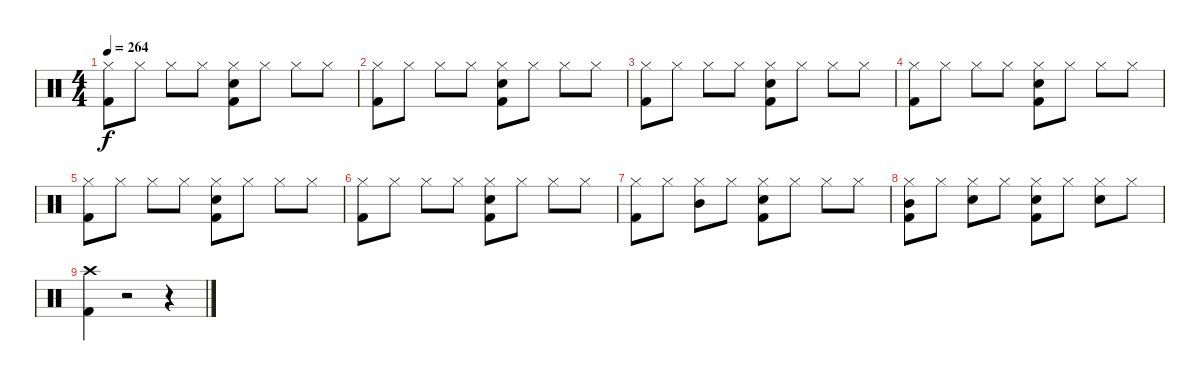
\track "" {instrument percussion}
\staff {score}
\articulation defaults
\ts (4 4)
\tempo 264
\clef neutral
\ks c
("Kick (hit) 2" "Hi-Hat (closed)").8{dy f} "Hi-Hat (closed)".8 "Hi-Hat (closed)".8 "Hi-Hat (closed)".8 ("Snare (hit) 2" "Kick (hit) 2" "Hi-Hat (closed)").8 "Hi-Hat (closed)".8 "Hi-Hat (closed)".8 "Hi-Hat (closed)".8 |
("Kick (hit) 2" "Hi-Hat (closed)").8 "Hi-Hat (closed)".8 "Hi-Hat (closed)".8 "Hi-Hat (closed)".8 ("Snare (hit) 2" "Kick (hit) 2" "Hi-Hat (closed)").8 "Hi-Hat (closed)".8 "Hi-Hat (closed)".8 "Hi-Hat (closed)".8 |
("Kick (hit) 2" "Hi-Hat (closed)").8 "Hi-Hat (closed)".8 "Hi-Hat (closed)".8 "Hi-Hat (closed)".8 ("Snare (hit) 2" "Kick (hit) 2" "Hi-Hat (closed)").8 "Hi-Hat (closed)".8 "Hi-Hat (closed)".8 "Hi-Hat (closed)".8 |
("Kick (hit) 2" "Hi-Hat (closed)").8 "Hi-Hat (closed)".8 "Hi-Hat (closed)".8 "Hi-Hat (closed)".8 ("Snare (hit) 2" "Kick (hit) 2" "Hi-Hat (closed)").8 "Hi-Hat (closed)".8 "Hi-Hat (closed)".8 "Hi-Hat (closed)".8 |
("Kick (hit) 2" "Hi-Hat (closed)").8 "Hi-Hat (closed)".8 "Hi-Hat (closed)".8 "Hi-Hat (closed)".8 ("Snare (hit) 2" "Kick (hit) 2" "Hi-Hat (closed)").8 "Hi-Hat (closed)".8 "Hi-Hat (closed)".8 "Hi-Hat (closed)".8 |
("Kick (hit) 2" "Hi-Hat (closed)").8 "Hi-Hat (closed)".8 "Hi-Hat (closed)".8 "Hi-Hat (closed)".8 ("Snare (hit) 2" "Kick (hit) 2" "Hi-Hat (closed)").8 "Hi-Hat (closed)".8 "Hi-Hat (closed)".8 "Hi-Hat (closed)".8 |
("Kick (hit) 2" "Hi-Hat (closed)").8 "Hi-Hat (closed)".8 ("Mid Tom (hit)" "Hi-Hat (closed)").8 "Hi-Hat (closed)".8 ("Snare (hit) 2" "Kick (hit) 2" "Hi-Hat (closed)").8 "Hi-Hat (closed)".8 "Hi-Hat (closed)".8 "Hi-Hat (closed)".8 |
("Mid Tom (hit)" "Kick (hit) 2" "Hi-Hat (closed)").8 "Hi-Hat (closed)".8 ("Snare (hit) 2" "Hi-Hat (closed)").8 "Hi-Hat (closed)".8 ("Snare (hit) 2" "Kick (hit) 2" "Hi-Hat (closed)").8 "Hi-Hat (closed)".8 ("Snare (hit) 2" "Hi-Hat (closed)").8 "Hi-Hat (closed)".8 |
("Crash high (hit)" "Kick (hit) 2").4 r.2 r.4
